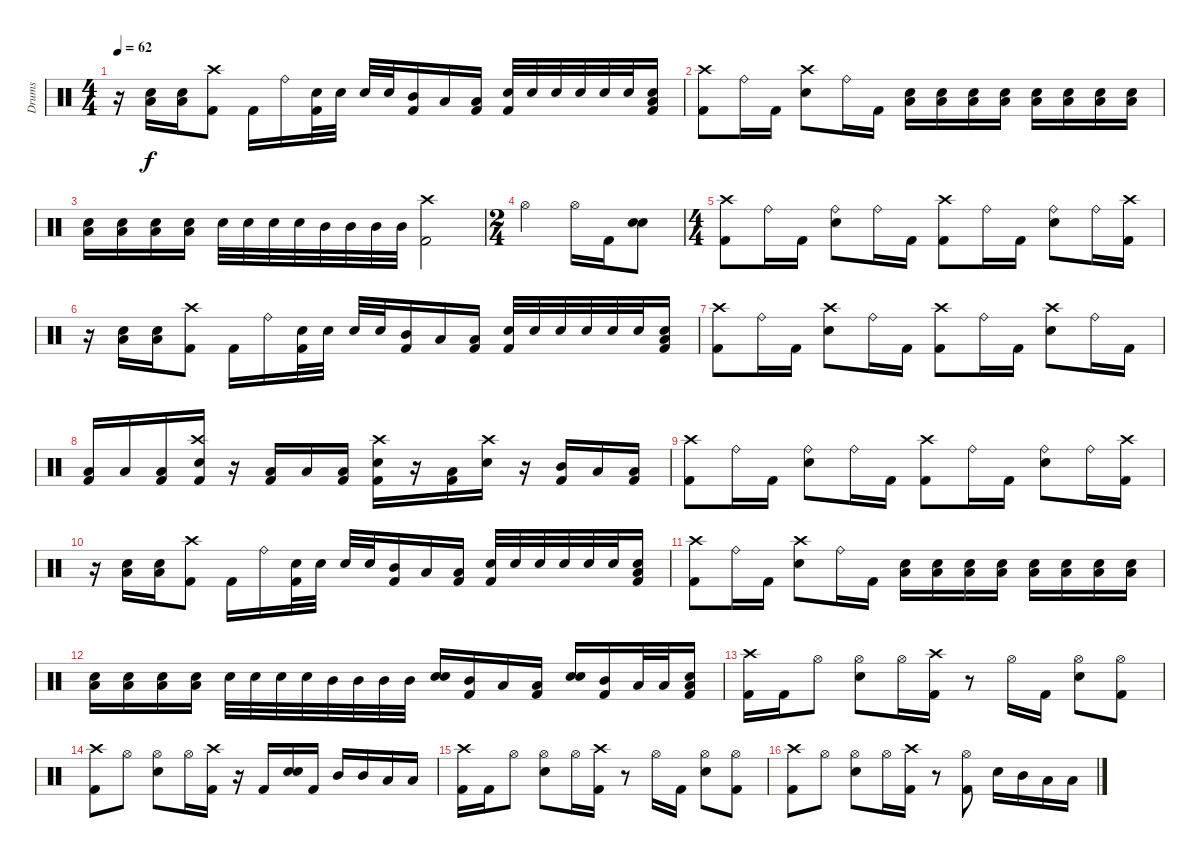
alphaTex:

\track ("Drums" "Drums") {instrument percussion}
\staff {score}
\articulation defaults
\ts (4 4)
\tempo 62
\clef neutral
\ks c
r.16{dy f} ("Low Floor Tom (hit)" "Snare (hit) 2").16 ("Low Floor Tom (hit)" "Snare (hit) 2").16 ("Crash high (hit)" "Kick (hit) 2").8 "Kick (hit) 2".16 "Ride (bell)".16 ("Snare (hit) 2" "Kick (hit) 2").32 "Snare (hit) 2".32 "Snare (hit) 2".32 "Snare (hit) 2".32 ("Mid Tom (hit)" "Kick (hit) 2").16 "Low Tom (hit)".16 ("Low Floor Tom (hit)" "Kick (hit) 2").16 ("Snare (hit) 2" "Kick (hit) 2").32 "Snare (hit) 2".32 "Snare (hit) 2".32 "Snare (hit) 2".32 "Snare (hit) 2".32 "Snare (hit) 2".32 ("Low Floor Tom (hit)" "Snare (hit) 2" "Kick (hit) 2").16 |
("Crash high (hit)" "Kick (hit) 2").8 "Ride (bell)".16 "Kick (hit) 2".16 ("Crash high (hit)" "Snare (hit) 2").8 "Ride (bell)".16 "Kick (hit) 2".16 ("Low Floor Tom (hit)" "Snare (hit) 2").16 ("Low Floor Tom (hit)" "Snare (hit) 2").16 ("Low Floor Tom (hit)" "Snare (hit) 2").16 ("Low Floor Tom (hit)" "Snare (hit) 2").16 ("Low Floor Tom (hit)" "Snare (hit) 2").16 ("Low Floor Tom (hit)" "Snare (hit) 2").16 ("Low Floor Tom (hit)" "Snare (hit) 2").16 ("Low Floor Tom (hit)" "Snare (hit) 2").16 |
("Low Floor Tom (hit)" "Snare (hit) 2").16 ("Low Floor Tom (hit)" "Snare (hit) 2").16 ("Low Floor Tom (hit)" "Snare (hit) 2").16 ("Low Floor Tom (hit)" "Snare (hit) 2").16 "Snare (hit) 2".32 "Snare (hit) 2".32 "Snare (hit) 2".32 "Snare (hit) 2".32 "Mid Tom (hit)".32 "Mid Tom (hit)".32 "Mid Tom (hit)".32 "Mid Tom (hit)".32 ("Crash high (hit)" "Kick (hit) 2").2 |
\ts (2 4)
"Hi-Hat (open)".4 "Hi-Hat (open)".16 "Kick (hit) 2".16 ("Snare (hit) 2" "Snare (hit) 2").8{bd 120} |
\ts (4 4)
("Crash high (hit)" "Kick (hit) 2").8 "Ride (bell)".16 "Kick (hit) 2".16 ("Ride (bell)" "Snare (hit) 2").8 "Ride (bell)".16 "Kick (hit) 2".16 ("Crash high (hit)" "Kick (hit) 2").8 "Ride (bell)".16 "Kick (hit) 2".16 ("Ride (bell)" "Snare (hit) 2").8 "Ride (bell)".16 ("Crash high (hit)" "Kick (hit) 2").16 |
r.16 ("Low Floor Tom (hit)" "Snare (hit) 2").16 ("Low Floor Tom (hit)" "Snare (hit) 2").16 ("Crash high (hit)" "Kick (hit) 2").8 "Kick (hit) 2".16 "Ride (bell)".16 ("Snare (hit) 2" "Kick (hit) 2").32 "Snare (hit) 2".32 "Snare (hit) 2".32 "Snare (hit) 2".32 ("Mid Tom (hit)" "Kick (hit) 2").16 "Low Tom (hit)".16 ("Low Floor Tom (hit)" "Kick (hit) 2").16 ("Snare (hit) 2" "Kick (hit) 2").32 "Snare (hit) 2".32 "Snare (hit) 2".32 "Snare (hit) 2".32 "Snare (hit) 2".32 "Snare (hit) 2".32 ("Low Floor Tom (hit)" "Snare (hit) 2" "Kick (hit) 2").16 |
("Crash high (hit)" "Kick (hit) 2").8 "Ride (bell)".16 "Kick (hit) 2".16 ("Crash high (hit)" "Snare (hit) 2").8 "Ride (bell)".16 "Kick (hit) 2".16 ("Crash high (hit)" "Kick (hit) 2").8 "Ride (bell)".16 "Kick (hit) 2".16 ("Crash high (hit)" "Snare (hit) 2").8 "Ride (bell)".16 "Kick (hit) 2".16 |
("Low Floor Tom (hit)" "Kick (hit) 2").16 "Low Floor Tom (hit)".16 ("Low Floor Tom (hit)" "Kick (hit) 2").16 ("Crash high (hit)" "Snare (hit) 2" "Kick (hit) 2").16 r.16 ("Low Floor Tom (hit)" "Kick (hit) 2").16 "Low Floor Tom (hit)".16 ("Low Floor Tom (hit)" "Kick (hit) 2").16 ("Crash high (hit)" "Snare (hit) 2" "Kick (hit) 2").16 r.16 ("Low Floor Tom (hit)" "Kick (hit) 2").16 ("Crash high (hit)" "Snare (hit) 2").16 r.16 ("Mid Tom (hit)" "Kick (hit) 2").16 "Low Tom (hit)".16 ("Low Floor Tom (hit)" "Kick (hit) 2").16 |
("Crash high (hit)" "Kick (hit) 2").8 "Ride (bell)".16 "Kick (hit) 2".16 ("Ride (bell)" "Snare (hit) 2").8 "Ride (bell)".16 "Kick (hit) 2".16 ("Crash high (hit)" "Kick (hit) 2").8 "Ride (bell)".16 "Kick (hit) 2".16 ("Ride (bell)" "Snare (hit) 2").8 "Ride (bell)".16 ("Crash high (hit)" "Kick (hit) 2").16 |
r.16 ("Low Floor Tom (hit)" "Snare (hit) 2").16 ("Low Floor Tom (hit)" "Snare (hit) 2").16 ("Crash high (hit)" "Kick (hit) 2").8 "Kick (hit) 2".16 "Ride (bell)".16 ("Snare (hit) 2" "Kick (hit) 2").32 "Snare (hit) 2".32 "Snare (hit) 2".32 "Snare (hit) 2".32 ("Mid Tom (hit)" "Kick (hit) 2").16 "Low Tom (hit)".16 ("Low Floor Tom (hit)" "Kick (hit) 2").16 ("Snare (hit) 2" "Kick (hit) 2").32 "Snare (hit) 2".32 "Snare (hit) 2".32 "Snare (hit) 2".32 "Snare (hit) 2".32 "Snare (hit) 2".32 ("Low Floor Tom (hit)" "Snare (hit) 2" "Kick (hit) 2").16 |
("Crash high (hit)" "Kick (hit) 2").8 "Ride (bell)".16 "Kick (hit) 2".16 ("Crash high (hit)" "Snare (hit) 2").8 "Ride (bell)".16 "Kick (hit) 2".16 ("Low Floor Tom (hit)" "Snare (hit) 2").16 ("Low Floor Tom (hit)" "Snare (hit) 2").16 ("Low Floor Tom (hit)" "Snare (hit) 2").16 ("Low Floor Tom (hit)" "Snare (hit) 2").16 ("Low Floor Tom (hit)" "Snare (hit) 2").16 ("Low Floor Tom (hit)" "Snare (hit) 2").16 ("Low Floor Tom (hit)" "Snare (hit) 2").16 ("Low Floor Tom (hit)" "Snare (hit) 2").16 |
("Low Floor Tom (hit)" "Snare (hit) 2").16 ("Low Floor Tom (hit)" "Snare (hit) 2").16 ("Low Floor Tom (hit)" "Snare (hit) 2").16 ("Low Floor Tom (hit)" "Snare (hit) 2").16 "Snare (hit) 2".32 "Snare (hit) 2".32 "Snare (hit) 2".32 "Snare (hit) 2".32 "Mid Tom (hit)".32 "Mid Tom (hit)".32 "Mid Tom (hit)".32 "Mid Tom (hit)".32 ("Snare (hit) 2" "Snare (hit) 2").16{bd 120} ("Mid Tom (hit)" "Kick (hit) 2").16 "Low Tom (hit)".16 ("Low Floor Tom (hit)" "Kick (hit) 2").16 ("Snare (hit) 2" "Snare (hit) 2").16{bd 120} ("Mid Tom (hit)" "Kick (hit) 2").16 "Low Tom (hit)".32 "Low Tom (hit)".32 ("Low Floor Tom (hit)" "Snare (hit) 2" "Kick (hit) 2").16 |
("Crash high (hit)" "Kick (hit) 2").16 "Kick (hit) 2".16 "Hi-Hat (open)".8 ("Hi-Hat (open)" "Snare (hit) 2").8 "Hi-Hat (open)".16 ("Crash high (hit)" "Kick (hit) 2").16 r.8 "Hi-Hat (open)".16 "Kick (hit) 2".16 ("Hi-Hat (open)" "Snare (hit) 2").8 ("Hi-Hat (open)" "Kick (hit) 2").8 |
("Crash high (hit)" "Kick (hit) 2").8 "Hi-Hat (open)".8 ("Hi-Hat (open)" "Snare (hit) 2").8 "Hi-Hat (open)".16 ("Crash high (hit)" "Kick (hit) 2").16 r.16 "Kick (hit) 2".16 ("Snare (hit) 2" "Snare (hit) 2").16{bd 120} "Kick (hit) 2".16 "Mid Tom (hit)".16 "Mid Tom (hit)".16 "Low Tom (hit)".16 "Low Floor Tom (hit)".16 |
("Crash high (hit)" "Kick (hit) 2").16 "Kick (hit) 2".16 "Hi-Hat (open)".8 ("Hi-Hat (open)" "Snare (hit) 2").8 "Hi-Hat (open)".16 ("Crash high (hit)" "Kick (hit) 2").16 r.8 "Hi-Hat (open)".16 "Kick (hit) 2".16 ("Hi-Hat (open)" "Snare (hit) 2").8 ("Hi-Hat (open)" "Kick (hit) 2").8 |
("Crash high (hit)" "Kick (hit) 2").8 "Hi-Hat (open)".8 ("Hi-Hat (open)" "Snare (hit) 2").8 "Hi-Hat (open)".16 ("Crash high (hit)" "Kick (hit) 2").16 r.8 ("Hi-Hat (open)" "Kick (hit) 2").8 "Snare (hit) 2".16 "Mid Tom (hit)".16 "Low Tom (hit)".16 "Low Floor Tom (hit)".16
